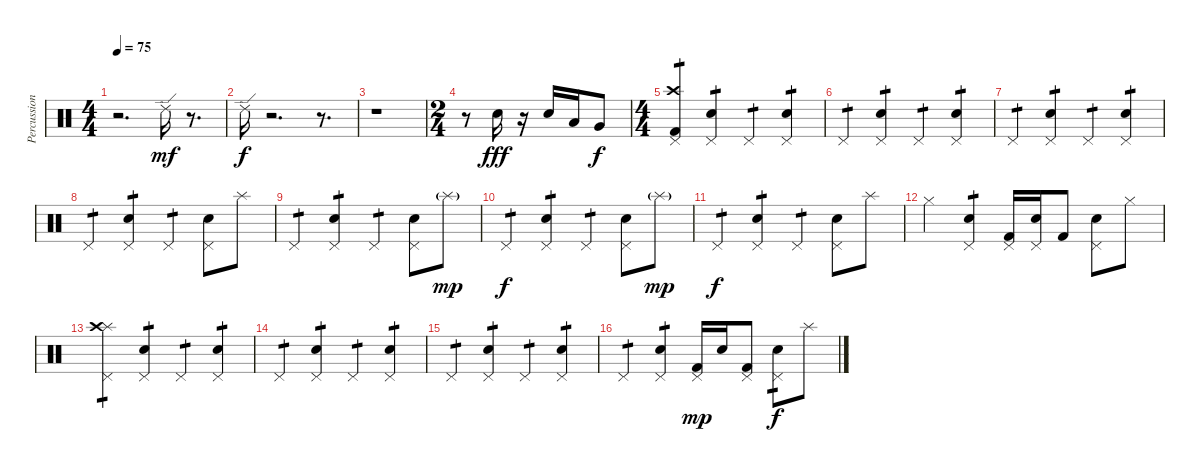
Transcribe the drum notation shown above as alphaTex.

\track ("Percussion" "Percussion") {instrument percussion}
\staff {score}
\articulation defaults
\ts (4 4)
\tempo 75
\clef neutral
\ks c
r.2{d dy fff} "Ride (edge) 2".16{dy mf} r.8{d} |
"Ride (edge) 2".16{dy f} r.2{d} r.8{d} |
r.1 |
\ts (2 4)
r.8 "Electric Snare (hit)".16{dy fff} r.16 "Electric Snare (hit)".16 "Low Tom (hit)".16 "Very Low Tom (hit)".8{dy f} |
\ts (4 4)
("Kick (hit) 2" "Crash high (hit)" "Pedal Hi-Hat (hit)").4{tp 1} ("Electric Snare (hit)" "Pedal Hi-Hat (hit)").4{tp 1} "Pedal Hi-Hat (hit)".4{tp 1} ("Electric Snare (hit)" "Pedal Hi-Hat (hit)").4{tp 1} |
"Pedal Hi-Hat (hit)".4{tp 1} ("Electric Snare (hit)" "Pedal Hi-Hat (hit)").4{tp 1} "Pedal Hi-Hat (hit)".4{tp 1} ("Electric Snare (hit)" "Pedal Hi-Hat (hit)").4{tp 1} |
"Pedal Hi-Hat (hit)".4{tp 1} ("Electric Snare (hit)" "Pedal Hi-Hat (hit)").4{tp 1} "Pedal Hi-Hat (hit)".4{tp 1} ("Electric Snare (hit)" "Pedal Hi-Hat (hit)").4{tp 1} |
"Pedal Hi-Hat (hit)".4{tp 1} ("Electric Snare (hit)" "Pedal Hi-Hat (hit)").4{tp 1} "Pedal Hi-Hat (hit)".4{tp 1} ("Electric Snare (hit)" "Pedal Hi-Hat (hit)").8 "Splash (hit)".8 |
"Pedal Hi-Hat (hit)".4{tp 1} ("Electric Snare (hit)" "Pedal Hi-Hat (hit)").4{tp 1} "Pedal Hi-Hat (hit)".4{tp 1} ("Electric Snare (hit)" "Pedal Hi-Hat (hit)").8 "Splash (hit)"{g}.8{dy mp} |
"Pedal Hi-Hat (hit)".4{tp 1 dy f} ("Electric Snare (hit)" "Pedal Hi-Hat (hit)").4{tp 1} "Pedal Hi-Hat (hit)".4{tp 1} ("Electric Snare (hit)" "Pedal Hi-Hat (hit)").8 "Splash (hit)"{g}.8{dy mp} |
"Pedal Hi-Hat (hit)".4{tp 1 dy f} ("Electric Snare (hit)" "Pedal Hi-Hat (hit)").4{tp 1} "Pedal Hi-Hat (hit)".4{tp 1} ("Electric Snare (hit)" "Pedal Hi-Hat (hit)").8 "Splash (hit)".8 |
"Hi-Hat (closed)".4 ("Electric Snare (hit)" "Pedal Hi-Hat (hit)").4{tp 1} ("Kick (hit) 2" "Pedal Hi-Hat (hit)").16 ("Electric Snare (hit)" "Pedal Hi-Hat (hit)").16 "Kick (hit) 2".8 ("Electric Snare (hit)" "Pedal Hi-Hat (hit)").8 "Hi-Hat (closed)".8 |
("Splash (hit)" "Crash high (hit)" "Pedal Hi-Hat (hit)").4{tp 1} ("Electric Snare (hit)" "Pedal Hi-Hat (hit)").4{tp 1} "Pedal Hi-Hat (hit)".4{tp 1} ("Electric Snare (hit)" "Pedal Hi-Hat (hit)").4{tp 1} |
"Pedal Hi-Hat (hit)".4{tp 1} ("Electric Snare (hit)" "Pedal Hi-Hat (hit)").4{tp 1} "Pedal Hi-Hat (hit)".4{tp 1} ("Electric Snare (hit)" "Pedal Hi-Hat (hit)").4{tp 1} |
"Pedal Hi-Hat (hit)".4{tp 1} ("Electric Snare (hit)" "Pedal Hi-Hat (hit)").4{tp 1} "Pedal Hi-Hat (hit)".4{tp 1} ("Electric Snare (hit)" "Pedal Hi-Hat (hit)").4{tp 1} |
"Pedal Hi-Hat (hit)".4{tp 1} ("Electric Snare (hit)" "Pedal Hi-Hat (hit)").4{tp 1} ("Kick (hit) 2" "Pedal Hi-Hat (hit)").16{dy mp} "Electric Snare (hit)".16 ("Kick (hit) 2" "Pedal Hi-Hat (hit)").8 ("Electric Snare (hit)" "Pedal Hi-Hat (hit)").8{tp 1 dy f} "Splash (hit)".8
